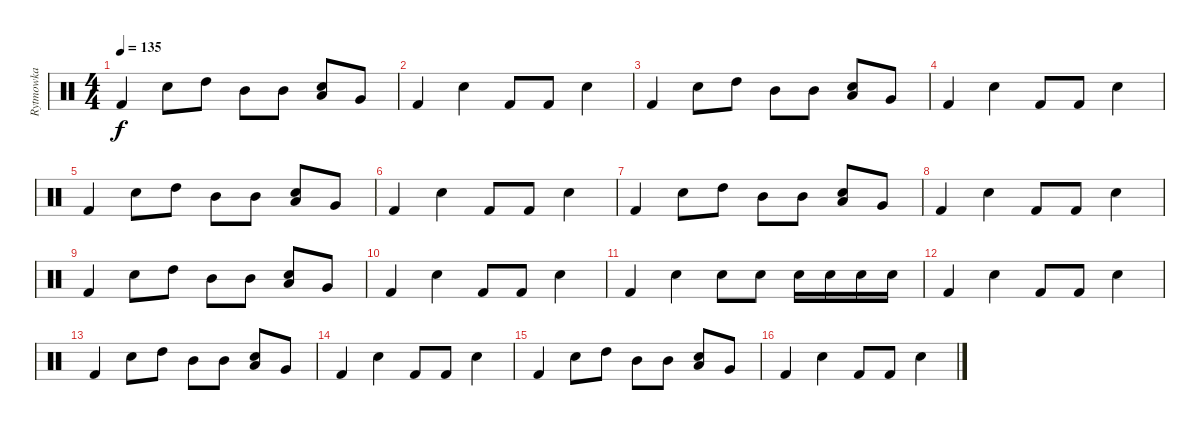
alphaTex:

\track ("Rytmowka" "Rytmowka") {instrument percussion}
\staff {score}
\articulation defaults
\ts (4 4)
\tempo 135
\clef neutral
\ks c "Kick (hit) 2".4{dy f} "Snare (hit) 2".8 "High Tom (hit)".8 "Mid Tom (hit)".8 "Mid Tom (hit)".8
("Snare (hit) 2" "Low Tom (hit)").8 "Very Low Tom (hit)".8 |
"Kick (hit) 2".4 "Snare (hit) 2".4 "Kick (hit) 2".8 "Kick (hit) 2".8 "Snare (hit) 2".4 |
"Kick (hit) 2".4 "Snare (hit) 2".8 "High Tom (hit)".8 "Mid Tom (hit)".8 "Mid Tom (hit)".8 ("Snare (hit) 2" "Low Tom (hit)").8 "Very Low Tom (hit)".8 |
"Kick (hit) 2".4 "Snare (hit) 2".4 "Kick (hit) 2".8 "Kick (hit) 2".8 "Snare (hit) 2".4 |
"Kick (hit) 2".4 "Snare (hit) 2".8 "High Tom (hit)".8 "Mid Tom (hit)".8 "Mid Tom (hit)".8 ("Snare (hit) 2" "Low Tom (hit)").8 "Very Low Tom (hit)".8 |
"Kick (hit) 2".4 "Snare (hit) 2".4 "Kick (hit) 2".8 "Kick (hit) 2".8 "Snare (hit) 2".4 |
"Kick (hit) 2".4 "Snare (hit) 2".8 "High Tom (hit)".8 "Mid Tom (hit)".8 "Mid Tom (hit)".8 ("Snare (hit) 2" "Low Tom (hit)").8 "Very Low Tom (hit)".8 |
"Kick (hit) 2".4 "Snare (hit) 2".4 "Kick (hit) 2".8 "Kick (hit) 2".8 "Snare (hit) 2".4 |
"Kick (hit) 2".4 "Snare (hit) 2".8 "High Tom (hit)".8 "Mid Tom (hit)".8 "Mid Tom (hit)".8 ("Snare (hit) 2" "Low Tom (hit)").8 "Very Low Tom (hit)".8 |
"Kick (hit) 2".4 "Snare (hit) 2".4 "Kick (hit) 2".8 "Kick (hit) 2".8 "Snare (hit) 2".4 |
"Kick (hit) 2".4 "Snare (hit) 2".4 "Snare (hit) 2".8 "Snare (hit) 2".8 "Snare (hit) 2".16 "Snare (hit) 2".16 "Snare (hit) 2".16 "Snare (hit) 2".16 |
"Kick (hit) 2".4 "Snare (hit) 2".4 "Kick (hit) 2".8 "Kick (hit) 2".8 "Snare (hit) 2".4 |
"Kick (hit) 2".4 "Snare (hit) 2".8 "High Tom (hit)".8 "Mid Tom (hit)".8 "Mid Tom (hit)".8 ("Snare (hit) 2" "Low Tom (hit)").8 "Very Low Tom (hit)".8 |
"Kick (hit) 2".4 "Snare (hit) 2".4 "Kick (hit) 2".8 "Kick (hit) 2".8 "Snare (hit) 2".4 |
"Kick (hit) 2".4 "Snare (hit) 2".8 "High Tom (hit)".8 "Mid Tom (hit)".8 "Mid Tom (hit)".8 ("Snare (hit) 2" "Low Tom (hit)").8 "Very Low Tom (hit)".8 |
"Kick (hit) 2".4 "Snare (hit) 2".4 "Kick (hit) 2".8 "Kick (hit) 2".8 "Snare (hit) 2".4
